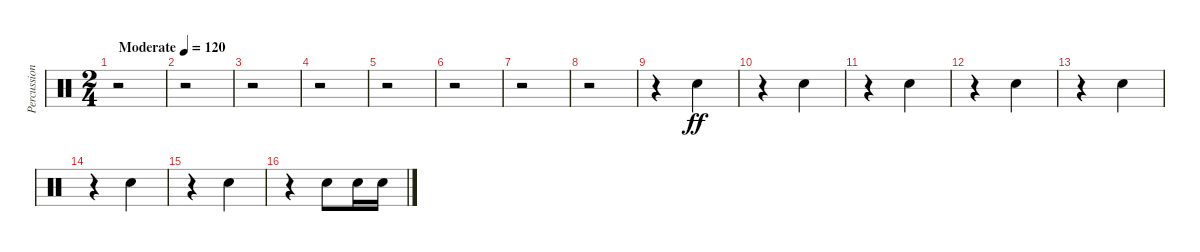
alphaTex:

\track ("Percussion" "Percussion") {instrument percussion}
\staff {score}
\articulation defaults
\ts (2 4)
\tempo (120 "Moderate")
\clef neutral
\ks c
r.2{dy ff} |
r.2 |
r.2 |
r.2 |
r.2 |
r.2 |
r.2 |
r.2 |
r.4 "Snare (hit) 2".4 |
r.4 "Snare (hit) 2".4 |
r.4 "Snare (hit) 2".4 |
r.4 "Snare (hit) 2".4 |
r.4 "Snare (hit) 2".4 |
r.4 "Snare (hit) 2".4 |
r.4 "Snare (hit) 2".4 |
r.4 "Snare (hit) 2".8 "Snare (hit) 2".16 "Snare (hit) 2".16
